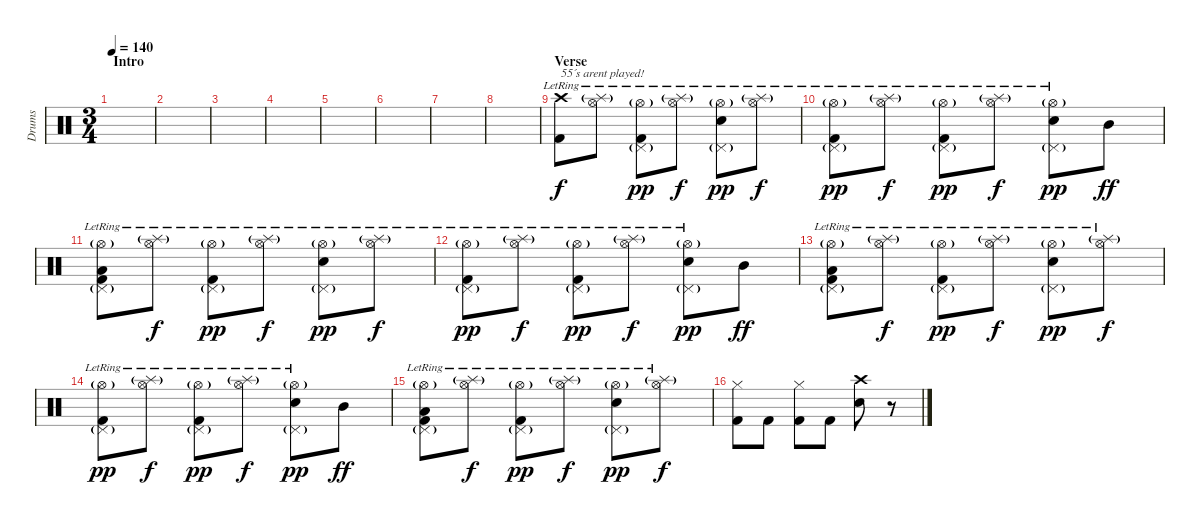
\track ("Drums" "Drums") {instrument percussion}
\staff {score}
\articulation defaults
\ts (3 4)
\section ("" "Intro")
\tempo 140
\clef neutral
\ks c
|
|
|
|
|
|
|
|
\section ("" "Verse")
("Crash high (hit)"{lr} "Kick (hit) 2").8{txt "55´s arent played!"} ("Splash (hit)"{g lr} "Hi-Hat (open)"{lr}).8 ("Hi-Hat (open)"{g lr} "Pedal Hi-Hat (hit)"{g} "Kick (hit) 2").8{dy pp} ("Splash (hit)"{g lr} "Hi-Hat (open)"{lr}).8{dy f} ("Hi-Hat (open)"{g lr} "Pedal Hi-Hat (hit)"{g} "Snare (hit) 2").8{dy pp} ("Splash (hit)"{g lr} "Hi-Hat (open)"{lr}).8{dy f} |
("Hi-Hat (open)"{g lr} "Pedal Hi-Hat (hit)"{g} "Kick (hit) 2").8{dy pp} ("Splash (hit)"{g lr} "Hi-Hat (open)"{lr}).8{dy f} ("Hi-Hat (open)"{g lr} "Pedal Hi-Hat (hit)"{g} "Kick (hit) 2").8{dy pp} ("Splash (hit)"{g lr} "Hi-Hat (open)"{lr}).8{dy f} ("Hi-Hat (open)"{g lr} "Pedal Hi-Hat (hit)"{g} "Snare (hit) 2").8{dy pp} "Mid Tom (hit)".8{dy ff} |
("Hi-Hat (open)"{g lr} "Pedal Hi-Hat (hit)"{g} "Low Tom (hit)" "Kick (hit) 2").8 ("Splash (hit)"{g lr} "Hi-Hat (open)"{lr}).8{dy f} ("Hi-Hat (open)"{g lr} "Pedal Hi-Hat (hit)"{g} "Kick (hit) 2").8{dy pp} ("Splash (hit)"{g lr} "Hi-Hat (open)"{lr}).8{dy f} ("Hi-Hat (open)"{g lr} "Pedal Hi-Hat (hit)"{g} "Snare (hit) 2").8{dy pp} ("Splash (hit)"{g lr} "Hi-Hat (open)"{lr}).8{dy f} |
("Hi-Hat (open)"{g lr} "Pedal Hi-Hat (hit)"{g} "Kick (hit) 2").8{dy pp} ("Splash (hit)"{g lr} "Hi-Hat (open)"{lr}).8{dy f} ("Hi-Hat (open)"{g lr} "Pedal Hi-Hat (hit)"{g} "Kick (hit) 2").8{dy pp} ("Splash (hit)"{g lr} "Hi-Hat (open)"{lr}).8{dy f} ("Hi-Hat (open)"{g lr} "Pedal Hi-Hat (hit)"{g} "Snare (hit) 2").8{dy pp} "Mid Tom (hit)".8{dy ff} |
("Hi-Hat (open)"{g lr} "Pedal Hi-Hat (hit)"{g} "Low Tom (hit)" "Kick (hit) 2").8 ("Splash (hit)"{g lr} "Hi-Hat (open)"{lr}).8{dy f} ("Hi-Hat (open)"{g lr} "Pedal Hi-Hat (hit)"{g} "Kick (hit) 2").8{dy pp} ("Splash (hit)"{g lr} "Hi-Hat (open)"{lr}).8{dy f} ("Hi-Hat (open)"{g lr} "Pedal Hi-Hat (hit)"{g} "Snare (hit) 2").8{dy pp} ("Splash (hit)"{g lr} "Hi-Hat (open)"{lr}).8{dy f} |
("Hi-Hat (open)"{g lr} "Pedal Hi-Hat (hit)"{g} "Kick (hit) 2").8{dy pp} ("Splash (hit)"{g lr} "Hi-Hat (open)"{lr}).8{dy f} ("Hi-Hat (open)"{g lr} "Pedal Hi-Hat (hit)"{g} "Kick (hit) 2").8{dy pp} ("Splash (hit)"{g lr} "Hi-Hat (open)"{lr}).8{dy f} ("Hi-Hat (open)"{g lr} "Pedal Hi-Hat (hit)"{g} "Snare (hit) 2").8{dy pp} "Mid Tom (hit)".8{dy ff} |
("Hi-Hat (open)"{g lr} "Pedal Hi-Hat (hit)"{g} "Low Tom (hit)" "Kick (hit) 2").8 ("Splash (hit)"{g lr} "Hi-Hat (open)"{lr}).8{dy f} ("Hi-Hat (open)"{g lr} "Pedal Hi-Hat (hit)"{g} "Kick (hit) 2").8{dy pp} ("Splash (hit)"{g lr} "Hi-Hat (open)"{lr}).8{dy f} ("Hi-Hat (open)"{g lr} "Pedal Hi-Hat (hit)"{g} "Snare (hit) 2").8{dy pp} ("Splash (hit)"{g lr} "Hi-Hat (open)"{lr}).8{dy f} |
("Hi-Hat (closed)" "Kick (hit) 2").8 "Kick (hit) 2".8 ("Hi-Hat (closed)" "Kick (hit) 2").8 "Kick (hit) 2".8 ("Crash high (hit)" "Snare (hit) 2").8 r.8
